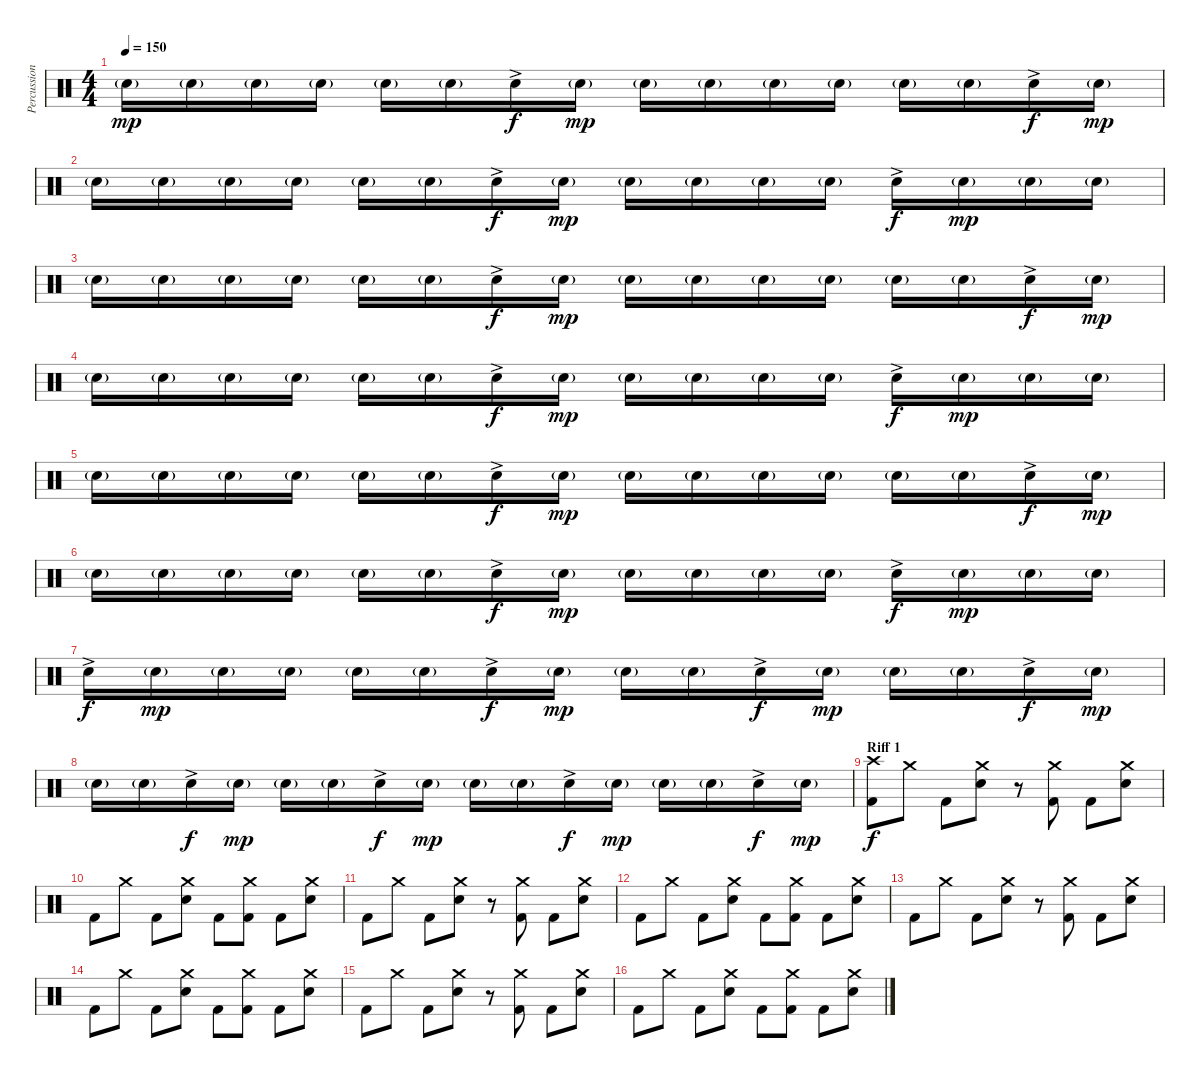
\track ("Percussion" "Percussion") {instrument percussion}
\staff {score}
\articulation defaults
\ts (4 4)
\tempo 150
\clef neutral
\ks c "Electric Snare (hit)"{g}.16{dy mp} "Electric Snare (hit)"{g}.16 "Electric Snare (hit)"{g}.16 "Electric Snare (hit)"{g}.16 "Electric Snare (hit)"{g}.16 "Electric Snare (hit)"{g}.16 "Electric Snare (hit)"{ac}.16{dy f} "Electric Snare (hit)"{g}.16{dy mp} "Electric Snare (hit)"{g}.16 "Electric Snare (hit)"{g}.16 "Electric Snare (hit)"{g}.16 "Electric Snare (hit)"{g}.16 "Electric Snare (hit)"{g}.16 "Electric Snare (hit)"{g}.16 "Electric Snare (hit)"{ac}.16{dy f} "Electric Snare (hit)"{g}.16{dy mp}
|
"Electric Snare (hit)"{g}.16 "Electric Snare (hit)"{g}.16 "Electric Snare (hit)"{g}.16 "Electric Snare (hit)"{g}.16 "Electric Snare (hit)"{g}.16 "Electric Snare (hit)"{g}.16 "Electric Snare (hit)"{ac}.16{dy f} "Electric Snare (hit)"{g}.16{dy mp} "Electric Snare (hit)"{g}.16 "Electric Snare (hit)"{g}.16 "Electric Snare (hit)"{g}.16 "Electric Snare (hit)"{g}.16 "Electric Snare (hit)"{ac}.16{dy f} "Electric Snare (hit)"{g}.16{dy mp} "Electric Snare (hit)"{g}.16 "Electric Snare (hit)"{g}.16 |
"Electric Snare (hit)"{g}.16 "Electric Snare (hit)"{g}.16 "Electric Snare (hit)"{g}.16 "Electric Snare (hit)"{g}.16 "Electric Snare (hit)"{g}.16 "Electric Snare (hit)"{g}.16 "Electric Snare (hit)"{ac}.16{dy f} "Electric Snare (hit)"{g}.16{dy mp} "Electric Snare (hit)"{g}.16 "Electric Snare (hit)"{g}.16 "Electric Snare (hit)"{g}.16 "Electric Snare (hit)"{g}.16 "Electric Snare (hit)"{g}.16 "Electric Snare (hit)"{g}.16 "Electric Snare (hit)"{ac}.16{dy f} "Electric Snare (hit)"{g}.16{dy mp} |
"Electric Snare (hit)"{g}.16 "Electric Snare (hit)"{g}.16 "Electric Snare (hit)"{g}.16 "Electric Snare (hit)"{g}.16 "Electric Snare (hit)"{g}.16 "Electric Snare (hit)"{g}.16 "Electric Snare (hit)"{ac}.16{dy f} "Electric Snare (hit)"{g}.16{dy mp} "Electric Snare (hit)"{g}.16 "Electric Snare (hit)"{g}.16 "Electric Snare (hit)"{g}.16 "Electric Snare (hit)"{g}.16 "Electric Snare (hit)"{ac}.16{dy f} "Electric Snare (hit)"{g}.16{dy mp} "Electric Snare (hit)"{g}.16 "Electric Snare (hit)"{g}.16 |
"Electric Snare (hit)"{g}.16 "Electric Snare (hit)"{g}.16 "Electric Snare (hit)"{g}.16 "Electric Snare (hit)"{g}.16 "Electric Snare (hit)"{g}.16 "Electric Snare (hit)"{g}.16 "Electric Snare (hit)"{ac}.16{dy f} "Electric Snare (hit)"{g}.16{dy mp} "Electric Snare (hit)"{g}.16 "Electric Snare (hit)"{g}.16 "Electric Snare (hit)"{g}.16 "Electric Snare (hit)"{g}.16 "Electric Snare (hit)"{g}.16 "Electric Snare (hit)"{g}.16 "Electric Snare (hit)"{ac}.16{dy f} "Electric Snare (hit)"{g}.16{dy mp} |
"Electric Snare (hit)"{g}.16 "Electric Snare (hit)"{g}.16 "Electric Snare (hit)"{g}.16 "Electric Snare (hit)"{g}.16 "Electric Snare (hit)"{g}.16 "Electric Snare (hit)"{g}.16 "Electric Snare (hit)"{ac}.16{dy f} "Electric Snare (hit)"{g}.16{dy mp} "Electric Snare (hit)"{g}.16 "Electric Snare (hit)"{g}.16 "Electric Snare (hit)"{g}.16 "Electric Snare (hit)"{g}.16 "Electric Snare (hit)"{ac}.16{dy f} "Electric Snare (hit)"{g}.16{dy mp} "Electric Snare (hit)"{g}.16 "Electric Snare (hit)"{g}.16 |
"Electric Snare (hit)"{ac}.16{dy f} "Electric Snare (hit)"{g}.16{dy mp} "Electric Snare (hit)"{g}.16 "Electric Snare (hit)"{g}.16 "Electric Snare (hit)"{g}.16 "Electric Snare (hit)"{g}.16 "Electric Snare (hit)"{ac}.16{dy f} "Electric Snare (hit)"{g}.16{dy mp} "Electric Snare (hit)"{g}.16 "Electric Snare (hit)"{g}.16 "Electric Snare (hit)"{ac}.16{dy f} "Electric Snare (hit)"{g}.16{dy mp} "Electric Snare (hit)"{g}.16 "Electric Snare (hit)"{g}.16 "Electric Snare (hit)"{ac}.16{dy f} "Electric Snare (hit)"{g}.16{dy mp} |
"Electric Snare (hit)"{g}.16 "Electric Snare (hit)"{g}.16 "Electric Snare (hit)"{ac}.16{dy f} "Electric Snare (hit)"{g}.16{dy mp} "Electric Snare (hit)"{g}.16 "Electric Snare (hit)"{g}.16 "Electric Snare (hit)"{ac}.16{dy f} "Electric Snare (hit)"{g}.16{dy mp} "Electric Snare (hit)"{g}.16 "Electric Snare (hit)"{g}.16 "Electric Snare (hit)"{ac}.16{dy f} "Electric Snare (hit)"{g}.16{dy mp} "Electric Snare (hit)"{g}.16 "Electric Snare (hit)"{g}.16 "Electric Snare (hit)"{ac}.16{dy f} "Electric Snare (hit)"{g}.16{dy mp} |
\section ("" "Riff 1")
("Crash high (hit)" "Kick (hit) 2").8{dy f} "Crash medium (hit)".8 "Kick (hit) 2".8 ("Crash medium (hit)" "Electric Snare (hit)").8 r.8 ("Crash medium (hit)" "Kick (hit) 2").8 "Kick (hit) 2".8 ("Crash medium (hit)" "Electric Snare (hit)").8 |
"Kick (hit) 2".8 "Crash medium (hit)".8 "Kick (hit) 2".8 ("Crash medium (hit)" "Electric Snare (hit)").8 "Kick (hit) 2".8 ("Crash medium (hit)" "Kick (hit) 2").8 "Kick (hit) 2".8 ("Crash medium (hit)" "Electric Snare (hit)").8 |
"Kick (hit) 2".8 "Crash medium (hit)".8 "Kick (hit) 2".8 ("Crash medium (hit)" "Electric Snare (hit)").8 r.8 ("Crash medium (hit)" "Kick (hit) 2").8 "Kick (hit) 2".8 ("Crash medium (hit)" "Electric Snare (hit)").8 |
"Kick (hit) 2".8 "Crash medium (hit)".8 "Kick (hit) 2".8 ("Crash medium (hit)" "Electric Snare (hit)").8 "Kick (hit) 2".8 ("Crash medium (hit)" "Kick (hit) 2").8 "Kick (hit) 2".8 ("Crash medium (hit)" "Electric Snare (hit)").8 |
"Kick (hit) 2".8 "Crash medium (hit)".8 "Kick (hit) 2".8 ("Crash medium (hit)" "Electric Snare (hit)").8 r.8 ("Crash medium (hit)" "Kick (hit) 2").8 "Kick (hit) 2".8 ("Crash medium (hit)" "Electric Snare (hit)").8 |
"Kick (hit) 2".8 "Crash medium (hit)".8 "Kick (hit) 2".8 ("Crash medium (hit)" "Electric Snare (hit)").8 "Kick (hit) 2".8 ("Crash medium (hit)" "Kick (hit) 2").8 "Kick (hit) 2".8 ("Crash medium (hit)" "Electric Snare (hit)").8 |
"Kick (hit) 2".8 "Crash medium (hit)".8 "Kick (hit) 2".8 ("Crash medium (hit)" "Electric Snare (hit)").8 r.8 ("Crash medium (hit)" "Kick (hit) 2").8 "Kick (hit) 2".8 ("Crash medium (hit)" "Electric Snare (hit)").8 |
"Kick (hit) 2".8 "Crash medium (hit)".8 "Kick (hit) 2".8 ("Crash medium (hit)" "Electric Snare (hit)").8 "Kick (hit) 2".8 ("Crash medium (hit)" "Kick (hit) 2").8 "Kick (hit) 2".8 ("Crash medium (hit)" "Electric Snare (hit)").8
